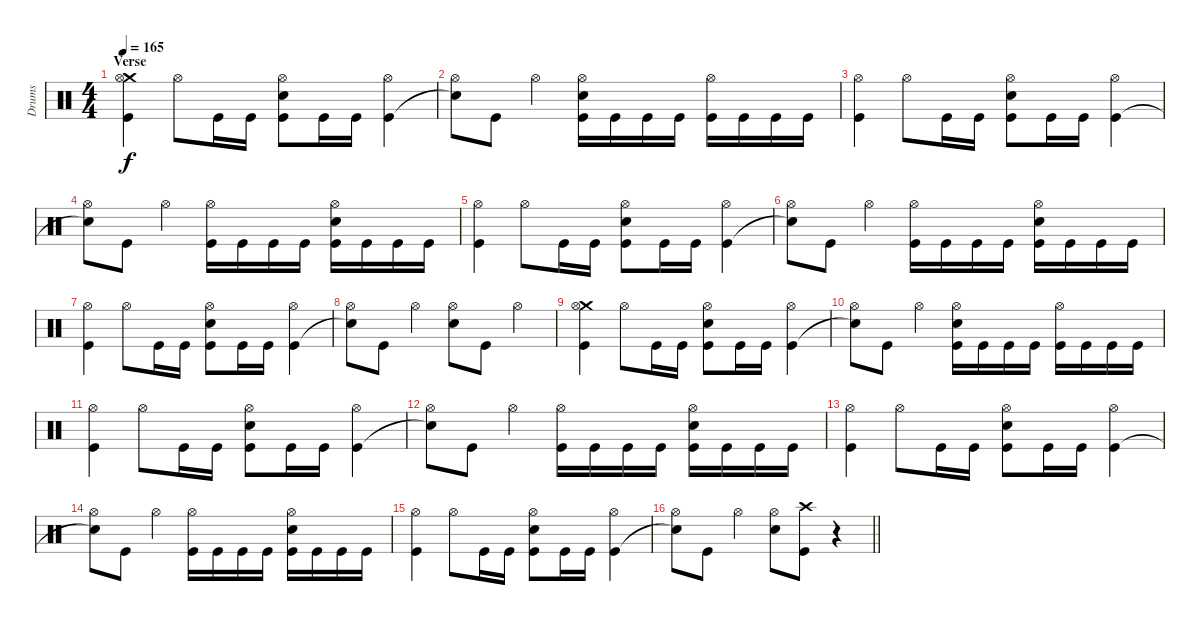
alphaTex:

\track ("Drums" "Drums") {instrument percussion}
\staff {score}
\articulation defaults
\ts (4 4)
\section ("" "Verse")
\tempo 165
\clef neutral
\ks c
("Crash medium (hit)" "Hi-Hat (open)" "Kick (hit)").4{dy f} "Hi-Hat (open)".8 "Kick (hit)".16 "Kick (hit)".16 ("Hi-Hat (open)" "Electric Snare (hit)" "Kick (hit)").8 "Kick (hit)".16 "Kick (hit)".16 ("Hi-Hat (open)" "Kick (hit)").4 |
("Hi-Hat (open)" "Snare (hit)"{t}).8 "Kick (hit)".8 "Hi-Hat (open)".4 ("Hi-Hat (open)" "Electric Snare (hit)" "Kick (hit)").16 "Kick (hit)".16 "Kick (hit)".16 "Kick (hit)".16 ("Hi-Hat (open)" "Kick (hit)").16 "Kick (hit)".16 "Kick (hit)".16 "Kick (hit)".16 |
("Hi-Hat (open)" "Kick (hit)").4 "Hi-Hat (open)".8 "Kick (hit)".16 "Kick (hit)".16 ("Hi-Hat (open)" "Electric Snare (hit)" "Kick (hit)").8 "Kick (hit)".16 "Kick (hit)".16 ("Hi-Hat (open)" "Kick (hit)").4 |
("Hi-Hat (open)" "Snare (hit)"{t}).8 "Kick (hit)".8 "Hi-Hat (open)".4 ("Hi-Hat (open)" "Kick (hit)").16 "Kick (hit)".16 "Kick (hit)".16 "Kick (hit)".16 ("Hi-Hat (open)" "Electric Snare (hit)" "Kick (hit)").16 "Kick (hit)".16 "Kick (hit)".16 "Kick (hit)".16 |
("Hi-Hat (open)" "Kick (hit)").4 "Hi-Hat (open)".8 "Kick (hit)".16 "Kick (hit)".16 ("Hi-Hat (open)" "Electric Snare (hit)" "Kick (hit)").8 "Kick (hit)".16 "Kick (hit)".16 ("Hi-Hat (open)" "Kick (hit)").4 |
("Hi-Hat (open)" "Snare (hit)"{t}).8 "Kick (hit)".8 "Hi-Hat (open)".4 ("Hi-Hat (open)" "Kick (hit)").16 "Kick (hit)".16 "Kick (hit)".16 "Kick (hit)".16 ("Hi-Hat (open)" "Electric Snare (hit)" "Kick (hit)").16 "Kick (hit)".16 "Kick (hit)".16 "Kick (hit)".16 |
("Hi-Hat (open)" "Kick (hit)").4 "Hi-Hat (open)".8 "Kick (hit)".16 "Kick (hit)".16 ("Hi-Hat (open)" "Electric Snare (hit)" "Kick (hit)").8 "Kick (hit)".16 "Kick (hit)".16 ("Hi-Hat (open)" "Kick (hit)").4 |
("Hi-Hat (open)" "Snare (hit)"{t}).8 "Kick (hit)".8 "Hi-Hat (open)".4 ("Hi-Hat (open)" "Electric Snare (hit)").8 "Kick (hit)".8 "Hi-Hat (open)".4 |
("Crash medium (hit)" "Hi-Hat (open)" "Kick (hit)").4 "Hi-Hat (open)".8 "Kick (hit)".16 "Kick (hit)".16 ("Hi-Hat (open)" "Electric Snare (hit)" "Kick (hit)").8 "Kick (hit)".16 "Kick (hit)".16 ("Hi-Hat (open)" "Kick (hit)").4 |
("Hi-Hat (open)" "Snare (hit)"{t}).8 "Kick (hit)".8 "Hi-Hat (open)".4 ("Hi-Hat (open)" "Electric Snare (hit)" "Kick (hit)").16 "Kick (hit)".16 "Kick (hit)".16 "Kick (hit)".16 ("Hi-Hat (open)" "Kick (hit)").16 "Kick (hit)".16 "Kick (hit)".16 "Kick (hit)".16 |
("Hi-Hat (open)" "Kick (hit)").4 "Hi-Hat (open)".8 "Kick (hit)".16 "Kick (hit)".16 ("Hi-Hat (open)" "Electric Snare (hit)" "Kick (hit)").8 "Kick (hit)".16 "Kick (hit)".16 ("Hi-Hat (open)" "Kick (hit)").4 |
("Hi-Hat (open)" "Snare (hit)"{t}).8 "Kick (hit)".8 "Hi-Hat (open)".4 ("Hi-Hat (open)" "Kick (hit)").16 "Kick (hit)".16 "Kick (hit)".16 "Kick (hit)".16 ("Hi-Hat (open)" "Electric Snare (hit)" "Kick (hit)").16 "Kick (hit)".16 "Kick (hit)".16 "Kick (hit)".16 |
("Hi-Hat (open)" "Kick (hit)").4 "Hi-Hat (open)".8 "Kick (hit)".16 "Kick (hit)".16 ("Hi-Hat (open)" "Electric Snare (hit)" "Kick (hit)").8 "Kick (hit)".16 "Kick (hit)".16 ("Hi-Hat (open)" "Kick (hit)").4 |
("Hi-Hat (open)" "Snare (hit)"{t}).8 "Kick (hit)".8 "Hi-Hat (open)".4 ("Hi-Hat (open)" "Kick (hit)").16 "Kick (hit)".16 "Kick (hit)".16 "Kick (hit)".16 ("Hi-Hat (open)" "Electric Snare (hit)" "Kick (hit)").16 "Kick (hit)".16 "Kick (hit)".16 "Kick (hit)".16 |
("Hi-Hat (open)" "Kick (hit)").4 "Hi-Hat (open)".8 "Kick (hit)".16 "Kick (hit)".16 ("Hi-Hat (open)" "Electric Snare (hit)" "Kick (hit)").8 "Kick (hit)".16 "Kick (hit)".16 ("Hi-Hat (open)" "Kick (hit)").4 |
\barLineRight lightlight
("Hi-Hat (open)" "Snare (hit)"{t}).8 "Kick (hit)".8 "Hi-Hat (open)".4 ("Hi-Hat (open)" "Electric Snare (hit)").8 ("Crash high (hit)" "Kick (hit)").8 r.4
